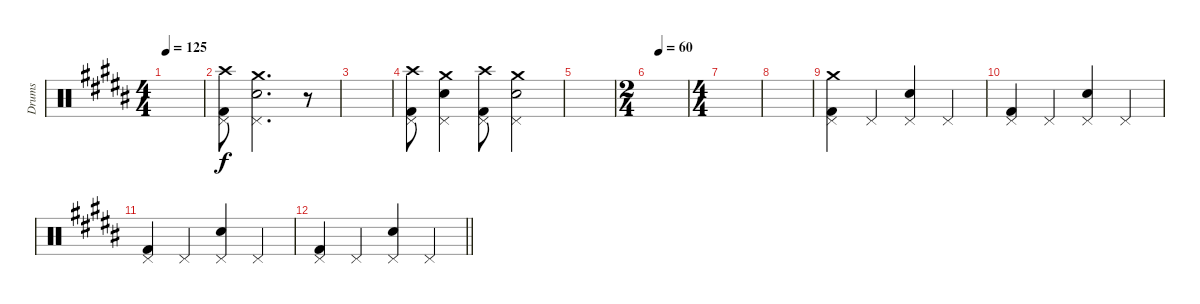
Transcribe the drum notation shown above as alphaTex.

\track ("Drums" "Drums") {instrument percussion}
\staff {score}
\articulation defaults
\ts (4 4)
\tempo 125
\clef neutral
\ks b
|
("Kick (hit) 2" "Pedal Hi-Hat (hit)" "Crash high (hit)").8 ("Snare (hit) 2" "Pedal Hi-Hat (hit)" "Crash medium (hit)").2{d} r.8 |
|
("Kick (hit) 2" "Pedal Hi-Hat (hit)" "Crash high (hit)").8 ("Snare (hit) 2" "Pedal Hi-Hat (hit)" "Crash medium (hit)").4 ("Kick (hit) 2" "Pedal Hi-Hat (hit)" "Crash high (hit)").8 ("Snare (hit) 2" "Pedal Hi-Hat (hit)" "Crash medium (hit)").2 |
|
\ts (2 4)
\tempo (60 0.25)
|
\ts (4 4)
|
|
("Kick (hit) 2" "Crash medium (hit)" "Pedal Hi-Hat (hit)").4 "Pedal Hi-Hat (hit)".4 ("Snare (hit) 2" "Pedal Hi-Hat (hit)").4 "Pedal Hi-Hat (hit)".4 |
("Kick (hit) 2" "Pedal Hi-Hat (hit)").4 "Pedal Hi-Hat (hit)".4 ("Snare (hit) 2" "Pedal Hi-Hat (hit)").4 "Pedal Hi-Hat (hit)".4 |
("Kick (hit) 2" "Pedal Hi-Hat (hit)").4 "Pedal Hi-Hat (hit)".4 ("Snare (hit) 2" "Pedal Hi-Hat (hit)").4 "Pedal Hi-Hat (hit)".4 |
\barLineRight lightlight
("Kick (hit) 2" "Pedal Hi-Hat (hit)").4 "Pedal Hi-Hat (hit)".4 ("Snare (hit) 2" "Pedal Hi-Hat (hit)").4 "Pedal Hi-Hat (hit)".4
